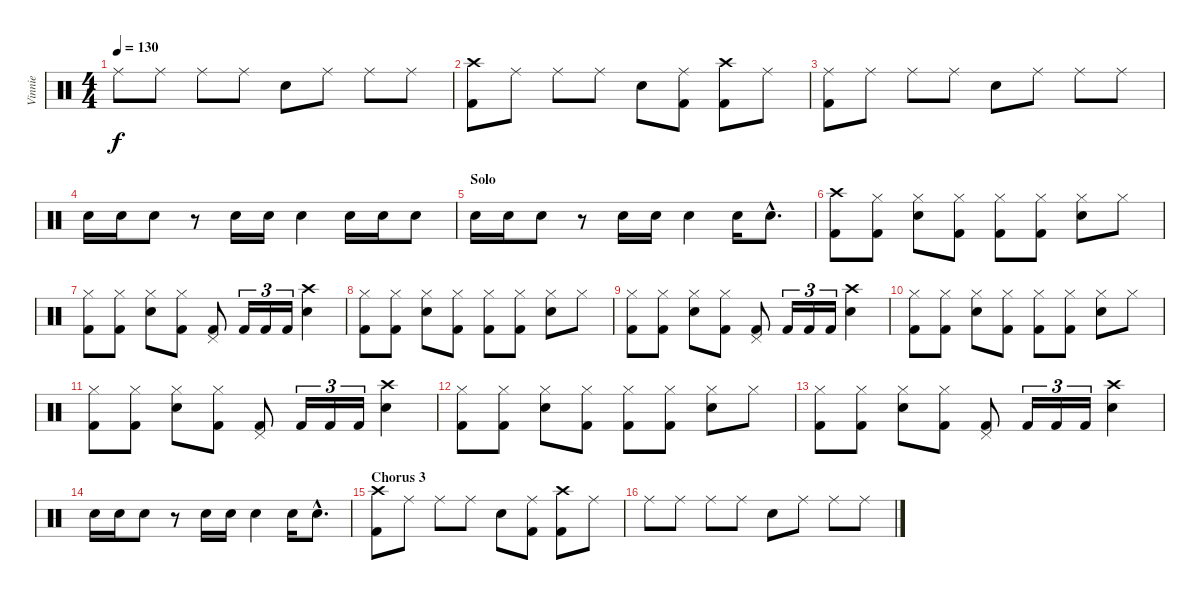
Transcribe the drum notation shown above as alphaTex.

\track ("Vinnie" "Vinnie") {instrument percussion}
\staff {score}
\articulation defaults
\ts (4 4)
\tempo 130
\clef neutral
\ks c "Ride (middle)".8{dy f} "Ride (middle)".8 "Ride (middle)".8 "Ride (middle)".8 "Electric Snare (hit)".8 "Ride (middle)".8 "Ride (middle)".8 "Ride (middle)".8
|
("Crash high (hit)" "Kick (hit) 2").8 "Ride (middle)".8 "Ride (middle)".8 "Ride (middle)".8 "Electric Snare (hit)".8 ("Ride (middle)" "Kick (hit) 2").8 ("Crash high (hit)" "Kick (hit) 2").8 "Ride (middle)".8 |
("Ride (middle)" "Kick (hit) 2").8 "Ride (middle)".8 "Ride (middle)".8 "Ride (middle)".8 "Electric Snare (hit)".8 "Ride (middle)".8 "Ride (middle)".8 "Ride (middle)".8 |
"Electric Snare (hit)".16 "Electric Snare (hit)".16 "Electric Snare (hit)".8 r.8 "Electric Snare (hit)".16 "Electric Snare (hit)".16 "Electric Snare (hit)".4 "Electric Snare (hit)".16 "Electric Snare (hit)".16 "Electric Snare (hit)".8 |
\section ("" "Solo")
"Electric Snare (hit)".16 "Electric Snare (hit)".16 "Electric Snare (hit)".8 r.8 "Electric Snare (hit)".16 "Electric Snare (hit)".16 "Electric Snare (hit)".4 "Electric Snare (hit)".16 "Electric Snare (hit)"{hac}.8{d} |
("Crash high (hit)" "Kick (hit) 2").8 ("Hi-Hat (closed)" "Kick (hit) 2").8 ("Hi-Hat (closed)" "Electric Snare (hit)").8 ("Hi-Hat (closed)" "Kick (hit) 2").8 ("Hi-Hat (closed)" "Kick (hit) 2").8 ("Hi-Hat (closed)" "Kick (hit) 2").8 ("Hi-Hat (closed)" "Electric Snare (hit)").8 "Hi-Hat (closed)".8 |
("Hi-Hat (closed)" "Kick (hit) 2").8 ("Hi-Hat (closed)" "Kick (hit) 2").8 ("Hi-Hat (closed)" "Electric Snare (hit)").8 ("Hi-Hat (closed)" "Kick (hit) 2").8 ("Pedal Hi-Hat (hit)" "Kick (hit) 2").8 "Kick (hit) 2".16{tu (3 2)} "Kick (hit) 2".16{tu (3 2)} "Kick (hit) 2".16{tu (3 2)} ("Crash high (hit)" "Electric Snare (hit)").4 |
("Hi-Hat (closed)" "Kick (hit) 2").8 ("Hi-Hat (closed)" "Kick (hit) 2").8 ("Hi-Hat (closed)" "Electric Snare (hit)").8 ("Hi-Hat (closed)" "Kick (hit) 2").8 ("Hi-Hat (closed)" "Kick (hit) 2").8 ("Hi-Hat (closed)" "Kick (hit) 2").8 ("Hi-Hat (closed)" "Electric Snare (hit)").8 "Hi-Hat (closed)".8 |
("Hi-Hat (closed)" "Kick (hit) 2").8 ("Hi-Hat (closed)" "Kick (hit) 2").8 ("Hi-Hat (closed)" "Electric Snare (hit)").8 ("Hi-Hat (closed)" "Kick (hit) 2").8 ("Pedal Hi-Hat (hit)" "Kick (hit) 2").8 "Kick (hit) 2".16{tu (3 2)} "Kick (hit) 2".16{tu (3 2)} "Kick (hit) 2".16{tu (3 2)} ("Crash high (hit)" "Electric Snare (hit)").4 |
("Hi-Hat (closed)" "Kick (hit) 2").8 ("Hi-Hat (closed)" "Kick (hit) 2").8 ("Hi-Hat (closed)" "Electric Snare (hit)").8 ("Hi-Hat (closed)" "Kick (hit) 2").8 ("Hi-Hat (closed)" "Kick (hit) 2").8 ("Hi-Hat (closed)" "Kick (hit) 2").8 ("Hi-Hat (closed)" "Electric Snare (hit)").8 "Hi-Hat (closed)".8 |
("Hi-Hat (closed)" "Kick (hit) 2").8 ("Hi-Hat (closed)" "Kick (hit) 2").8 ("Hi-Hat (closed)" "Electric Snare (hit)").8 ("Hi-Hat (closed)" "Kick (hit) 2").8 ("Pedal Hi-Hat (hit)" "Kick (hit) 2").8 "Kick (hit) 2".16{tu (3 2)} "Kick (hit) 2".16{tu (3 2)} "Kick (hit) 2".16{tu (3 2)} ("Crash high (hit)" "Electric Snare (hit)").4 |
("Hi-Hat (closed)" "Kick (hit) 2").8 ("Hi-Hat (closed)" "Kick (hit) 2").8 ("Hi-Hat (closed)" "Electric Snare (hit)").8 ("Hi-Hat (closed)" "Kick (hit) 2").8 ("Hi-Hat (closed)" "Kick (hit) 2").8 ("Hi-Hat (closed)" "Kick (hit) 2").8 ("Hi-Hat (closed)" "Electric Snare (hit)").8 "Hi-Hat (closed)".8 |
("Hi-Hat (closed)" "Kick (hit) 2").8 ("Hi-Hat (closed)" "Kick (hit) 2").8 ("Hi-Hat (closed)" "Electric Snare (hit)").8 ("Hi-Hat (closed)" "Kick (hit) 2").8 ("Pedal Hi-Hat (hit)" "Kick (hit) 2").8 "Kick (hit) 2".16{tu (3 2)} "Kick (hit) 2".16{tu (3 2)} "Kick (hit) 2".16{tu (3 2)} ("Crash high (hit)" "Electric Snare (hit)").4 |
"Electric Snare (hit)".16 "Electric Snare (hit)".16 "Electric Snare (hit)".8 r.8 "Electric Snare (hit)".16 "Electric Snare (hit)".16 "Electric Snare (hit)".4 "Electric Snare (hit)".16 "Electric Snare (hit)"{hac}.8{d} |
\section ("" "Chorus 3")
("Crash high (hit)" "Kick (hit) 2").8 "Ride (middle)".8 "Ride (middle)".8 "Ride (middle)".8 "Electric Snare (hit)".8 ("Ride (middle)" "Kick (hit) 2").8 ("Crash high (hit)" "Kick (hit) 2").8 "Ride (middle)".8 |
"Ride (middle)".8 "Ride (middle)".8 "Ride (middle)".8 "Ride (middle)".8 "Electric Snare (hit)".8 "Ride (middle)".8 "Ride (middle)".8 "Ride (middle)".8
